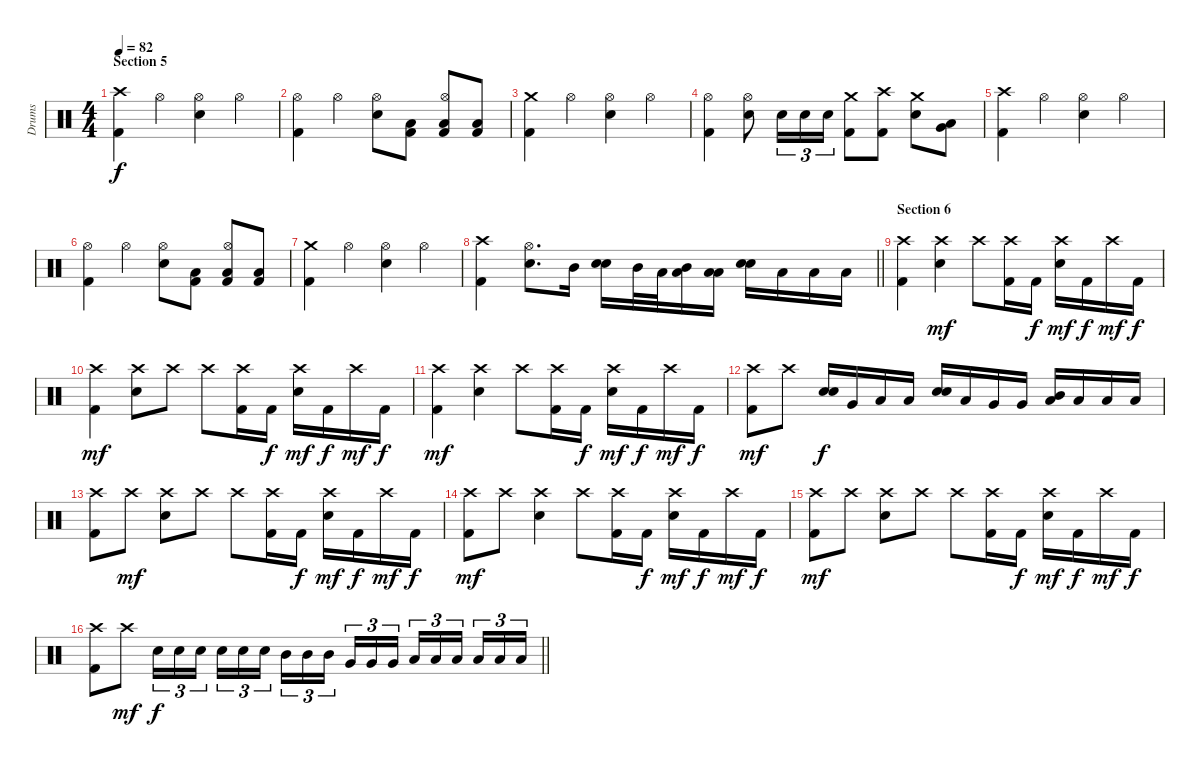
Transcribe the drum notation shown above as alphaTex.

\track ("Drums" "Drums") {instrument percussion}
\staff {score}
\articulation defaults
\ts (4 4)
\section ("" "Section 5")
\tempo 82
\clef neutral
\ks c
("Crash high (hit)" "Kick (hit) 2").4{dy f} "Hi-Hat (open)".4 ("Hi-Hat (open)" "Electric Snare (hit)").4 "Hi-Hat (open)".4 |
("Hi-Hat (open)" "Kick (hit) 2").4 "Hi-Hat (open)".4 ("Hi-Hat (open)" "Electric Snare (hit)").8 ("Low Tom (hit)" "Kick (hit) 2").8 ("Hi-Hat (open)" "Low Tom (hit)" "Kick (hit) 2").8 ("Low Tom (hit)" "Kick (hit) 2").8 |
("Crash medium (hit)" "Kick (hit) 2").4 "Hi-Hat (open)".4 ("Hi-Hat (open)" "Electric Snare (hit)").4 "Hi-Hat (open)".4 |
("Hi-Hat (open)" "Kick (hit) 2").4 ("Hi-Hat (open)" "Electric Snare (hit)").8 "Electric Snare (hit)".16{tu (3 2)} "Electric Snare (hit)".16{tu (3 2)} "Electric Snare (hit)".16{tu (3 2)} ("Crash medium (hit)" "Kick (hit) 2").8 ("Crash high (hit)" "Kick (hit) 2").8 ("Crash medium (hit)" "Electric Snare (hit)").8 ("Very Low Tom (hit)" "Low Floor Tom (hit)").8 |
("Crash high (hit)" "Kick (hit) 2").4 "Hi-Hat (open)".4 ("Hi-Hat (open)" "Electric Snare (hit)").4 "Hi-Hat (open)".4 |
("Hi-Hat (open)" "Kick (hit) 2").4 "Hi-Hat (open)".4 ("Hi-Hat (open)" "Electric Snare (hit)").8 ("Low Tom (hit)" "Kick (hit) 2").8 ("Hi-Hat (open)" "Low Tom (hit)" "Kick (hit) 2").8 ("Low Tom (hit)" "Kick (hit) 2").8 |
("Crash medium (hit)" "Kick (hit) 2").4 "Hi-Hat (open)".4 ("Hi-Hat (open)" "Electric Snare (hit)").4 "Hi-Hat (open)".4 |
\barLineRight lightlight
("Crash high (hit)" "Kick (hit) 2").4 ("Hi-Hat (open)" "Electric Snare (hit)").8{d} "Mid Tom (hit)".16 ("Electric Snare (hit)" "Electric Snare (hit)").16{bu 60} "Mid Tom (hit)".32 "Low Tom (hit)".32 ("Mid Tom (hit)" "Low Floor Tom (hit)").16{bu 60} ("Low Tom (hit)" "Low Floor Tom (hit)").16{bu 60} ("Electric Snare (hit)" "Electric Snare (hit)").16{bu 60} "Low Tom (hit)".16 "Low Floor Tom (hit)".16 "Low Floor Tom (hit)".16 |
\section ("" "Section 6")
("Crash high (hit)" "Kick (hit) 2").4 ("Crash high (hit)" "Electric Snare (hit)").4{dy mf} "Crash high (hit)".8 ("Crash high (hit)" "Kick (hit) 2").16 "Kick (hit) 2".16{dy f} ("Crash high (hit)" "Electric Snare (hit)").16{dy mf} "Kick (hit) 2".16{dy f} "Crash high (hit)".16{dy mf} "Kick (hit) 2".16{dy f} |
("Crash high (hit)" "Kick (hit) 2").4{dy mf} ("Crash high (hit)" "Electric Snare (hit)").8 "Crash high (hit)".8 "Crash high (hit)".8 ("Crash high (hit)" "Kick (hit) 2").16 "Kick (hit) 2".16{dy f} ("Crash high (hit)" "Electric Snare (hit)").16{dy mf} "Kick (hit) 2".16{dy f} "Crash high (hit)".16{dy mf} "Kick (hit) 2".16{dy f} |
("Crash high (hit)" "Kick (hit) 2").4{dy mf} ("Crash high (hit)" "Electric Snare (hit)").4 "Crash high (hit)".8 ("Crash high (hit)" "Kick (hit) 2").16 "Kick (hit) 2".16{dy f} ("Crash high (hit)" "Electric Snare (hit)").16{dy mf} "Kick (hit) 2".16{dy f} "Crash high (hit)".16{dy mf} "Kick (hit) 2".16{dy f} |
("Crash high (hit)" "Kick (hit) 2").8{dy mf} "Crash high (hit)".8 ("Electric Snare (hit)" "Electric Snare (hit)").16{bu 60 dy f} "Very Low Tom (hit)".16 "Low Tom (hit)".16 "Low Tom (hit)".16 ("Electric Snare (hit)" "Electric Snare (hit)").16{bu 60} "Low Floor Tom (hit)".16 "Very Low Tom (hit)".16 "Very Low Tom (hit)".16 ("Mid Tom (hit)" "Low Tom (hit)").16{bu 60} "Low Tom (hit)".16 "Low Floor Tom (hit)".16 "Low Floor Tom (hit)".16 |
("Crash high (hit)" "Kick (hit) 2").8 "Crash high (hit)".8{dy mf} ("Crash high (hit)" "Electric Snare (hit)").8 "Crash high (hit)".8 "Crash high (hit)".8 ("Crash high (hit)" "Kick (hit) 2").16 "Kick (hit) 2".16{dy f} ("Crash high (hit)" "Electric Snare (hit)").16{dy mf} "Kick (hit) 2".16{dy f} "Crash high (hit)".16{dy mf} "Kick (hit) 2".16{dy f} |
("Crash high (hit)" "Kick (hit) 2").8{dy mf} "Crash high (hit)".8 ("Crash high (hit)" "Electric Snare (hit)").4 "Crash high (hit)".8 ("Crash high (hit)" "Kick (hit) 2").16 "Kick (hit) 2".16{dy f} ("Crash high (hit)" "Electric Snare (hit)").16{dy mf} "Kick (hit) 2".16{dy f} "Crash high (hit)".16{dy mf} "Kick (hit) 2".16{dy f} |
("Crash high (hit)" "Kick (hit) 2").8{dy mf} "Crash high (hit)".8 ("Crash high (hit)" "Electric Snare (hit)").8 "Crash high (hit)".8 "Crash high (hit)".8 ("Crash high (hit)" "Kick (hit) 2").16 "Kick (hit) 2".16{dy f} ("Crash high (hit)" "Electric Snare (hit)").16{dy mf} "Kick (hit) 2".16{dy f} "Crash high (hit)".16{dy mf} "Kick (hit) 2".16{dy f} |
\barLineRight lightlight
("Crash high (hit)" "Kick (hit) 2").8 "Crash high (hit)".8{dy mf} "Electric Snare (hit)".16{tu (3 2) dy f} "Electric Snare (hit)".16{tu (3 2)} "Electric Snare (hit)".16{tu (3 2) beam splitsecondary} "Electric Snare (hit)".16{tu (3 2)} "Electric Snare (hit)".16{tu (3 2)} "Electric Snare (hit)".16{tu (3 2)} "Mid Tom (hit)".16{tu (3 2)} "Mid Tom (hit)".16{tu (3 2)} "Mid Tom (hit)".16{tu (3 2) beam splitsecondary} "Very Low Tom (hit)".16{tu (3 2)} "Very Low Tom (hit)".16{tu (3 2)} "Very Low Tom (hit)".16{tu (3 2)} "Low Tom (hit)".16{tu (3 2)} "Low Tom (hit)".16{tu (3 2)} "Low Tom (hit)".16{tu (3 2) beam splitsecondary} "Low Floor Tom (hit)".16{tu (3 2)} "Low Floor Tom (hit)".16{tu (3 2)} "Low Floor Tom (hit)".16{tu (3 2)}
